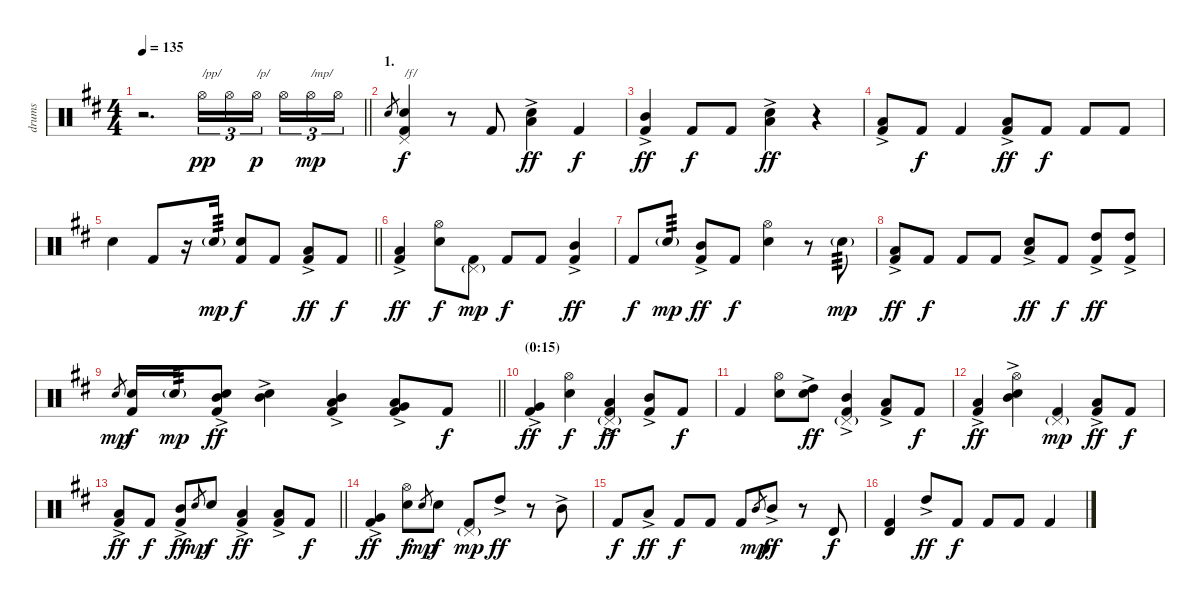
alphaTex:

\track ("drums" "drums") {instrument percussion}
\staff {score}
\articulation defaults
\ts (4 4)
\tempo 135
\clef neutral
\barLineRight lightlight
\ks d
r.2{d dy pp} "Hi-Hat (open)".16{tu (3 2) txt "/pp/"} "Hi-Hat (open)".16{tu (3 2)} "Hi-Hat (open)".16{tu (3 2) txt "/p/" dy p beam splitsecondary} "Hi-Hat (open)".16{tu (3 2)} "Hi-Hat (open)".16{tu (3 2) txt "/mp/" dy mp} "Hi-Hat (open)".16{tu (3 2)} |
\section ("" "1.")
"Electric Snare (hit)".8{gr} ("Pedal Hi-Hat (hit)" "Electric Snare (hit)" "Kick (hit) 2").4{txt "/f/" dy f} r.8 "Kick (hit) 2".8 ("Low Tom (hit)"{ac} "Electric Snare (hit)").4{dy ff} "Kick (hit) 2".4{dy f} |
("Mid Tom (hit)"{ac} "Kick (hit) 2").4{dy ff} "Kick (hit) 2".8{dy f} "Kick (hit) 2".8 ("Low Tom (hit)"{ac} "Electric Snare (hit)").4{dy ff} r.4 |
("Low Floor Tom (hit)"{ac} "Kick (hit) 2").8 "Kick (hit) 2".8{dy f} "Kick (hit) 2".4 ("Low Tom (hit)"{ac} "Kick (hit) 2").8{dy ff} "Kick (hit) 2".8{dy f} "Kick (hit) 2".8 "Kick (hit) 2".8 |
\barLineRight lightlight "Electric Snare (hit)".4 "Kick (hit) 2".8
r.16 "Electric Snare (hit)"{g}.16{tp 3 dy mp} ("Electric Snare (hit)" "Kick (hit) 2").8{dy f} "Kick (hit) 2".8 ("Low Tom (hit)"{ac} "Kick (hit) 2").8{dy ff} "Kick (hit) 2".8{dy f} |
("Low Floor Tom (hit)"{ac} "Kick (hit) 2").4{dy ff} ("Hi-Hat (open)" "Electric Snare (hit)").8{dy f} ("Pedal Hi-Hat (hit)"{g} "Kick (hit) 2").8{dy mp} "Kick (hit) 2".8{dy f} "Kick (hit) 2".8 ("Mid Tom (hit)"{ac} "Kick (hit) 2").4{dy ff} |
"Kick (hit) 2".8{dy f} "Electric Snare (hit)"{g}.8{tp 3 dy mp} ("Mid Tom (hit)"{ac} "Kick (hit) 2").8{dy ff} "Kick (hit) 2".8{dy f} ("Hi-Hat (open)" "Electric Snare (hit)").4 r.8 "Electric Snare (hit)"{g}.8{tp 3 dy mp} |
("Low Floor Tom (hit)"{ac} "Kick (hit) 2").8{dy ff} "Kick (hit) 2".8{dy f} "Kick (hit) 2".8 "Kick (hit) 2".8 ("Low Tom (hit)"{ac} "Electric Snare (hit)").8{dy ff} "Kick (hit) 2".8{dy f} ("High Tom (hit)"{ac} "Kick (hit) 2").8{dy ff} ("High Tom (hit)"{ac} "Kick (hit) 2").8 |
\barLineRight lightlight "Electric Snare (hit)".8{gr dy mp}
("Electric Snare (hit)" "Kick (hit) 2").16{dy f} "Electric Snare (hit)"{g}.16{tp 3 dy mp} ("Mid Tom (hit)"{ac} "Electric Snare (hit)" "Kick (hit) 2").8{dy ff} ("Mid Tom (hit)"{ac} "Electric Snare (hit)").4 ("Mid Tom (hit)"{ac} "Low Tom (hit)"{ac} "Kick (hit) 2").4 ("Low Tom (hit)"{ac} "Very Low Tom (hit)"{ac} "Kick (hit) 2").8 "Kick (hit) 2".8{dy f} |
\section ("" "(0:15)")
("Very Low Tom (hit)"{ac} "Kick (hit) 2").4{dy ff} ("Hi-Hat (open)" "Electric Snare (hit)").4{dy f} ("Pedal Hi-Hat (hit)"{g} "Low Tom (hit)"{ac} "Kick (hit) 2").4{dy ff} ("Mid Tom (hit)"{ac} "Kick (hit) 2").8 "Kick (hit) 2".8{dy f} |
"Kick (hit) 2".4 ("Hi-Hat (open)" "Electric Snare (hit)").8 ("High Tom (hit)"{ac} "Electric Snare (hit)").8{dy ff} ("Pedal Hi-Hat (hit)"{g} "Mid Tom (hit)"{ac} "Kick (hit) 2").4 ("Low Tom (hit)"{ac} "Kick (hit) 2").8 "Kick (hit) 2".8{dy f} |
("Low Floor Tom (hit)"{ac} "Kick (hit) 2").4{dy ff} ("Hi-Hat (open)" "Mid Tom (hit)"{ac} "Electric Snare (hit)").4 ("Pedal Hi-Hat (hit)"{g} "Kick (hit) 2").4{dy mp} ("Low Tom (hit)"{ac} "Kick (hit) 2").8{dy ff} "Kick (hit) 2".8{dy f} |
\barLineRight lightlight
("Low Tom (hit)"{ac} "Kick (hit) 2").8{dy ff} "Kick (hit) 2".8{dy f} ("Mid Tom (hit)"{ac} "Kick (hit) 2").8{dy ff} "Electric Snare (hit)".8{gr dy mp} "Electric Snare (hit)".8{dy f} ("Low Floor Tom (hit)"{ac} "Kick (hit) 2").4{dy ff} ("Low Tom (hit)"{ac} "Kick (hit) 2").8 "Kick (hit) 2".8{dy f} |
("Very Low Tom (hit)"{ac} "Kick (hit) 2").4{dy ff} ("Hi-Hat (open)" "Electric Snare (hit)").8{dy f} "Electric Snare (hit)".8{gr dy mp} "Electric Snare (hit)".8{dy f} ("Pedal Hi-Hat (hit)"{g} "Kick (hit) 2").8{dy mp} "High Tom (hit)"{ac}.8{dy ff} r.8 "Mid Tom (hit)"{ac}.8 |
"Kick (hit) 2".8{dy f} "Low Tom (hit)"{ac}.8{dy ff} "Kick (hit) 2".8{dy f} "Kick (hit) 2".8 "Kick (hit) 2".8 "Mid Tom (hit)".8{gr dy mp} "Mid Tom (hit)"{ac}.8{dy ff} r.8 "Timbale high (hit)".8{dy f} |
("Timbale high (hit)" "Kick (hit) 2").4 "High Tom (hit)"{ac}.8{dy ff} "Kick (hit) 2".8{dy f} "Kick (hit) 2".8 "Kick (hit) 2".8 "Kick (hit) 2".4
